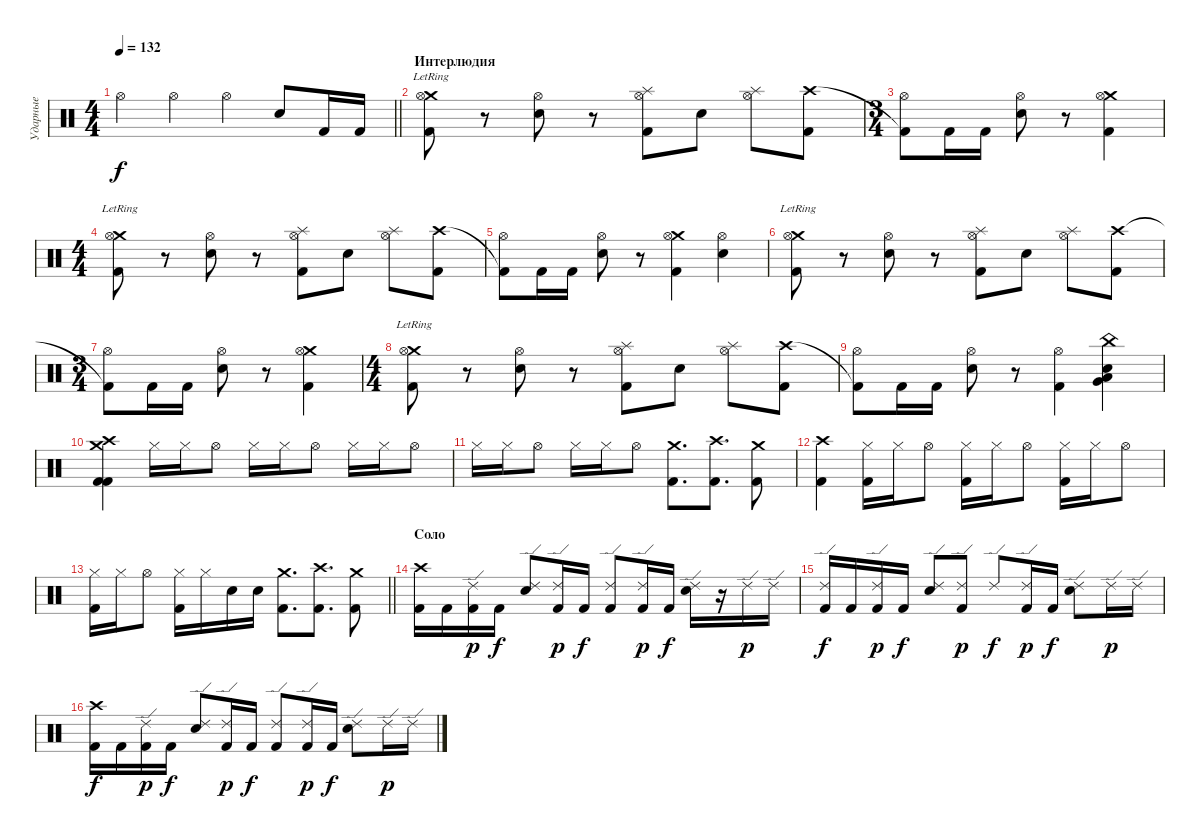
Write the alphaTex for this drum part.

\track ("Ударные" "Ударные") {instrument percussion}
\staff {score}
\articulation defaults
\ts (4 4)
\tempo 132
\clef neutral
\barLineRight lightlight
\ks c "Hi-Hat (open)".4{dy f} "Hi-Hat (open)".4 "Hi-Hat (open)".4 "Electric Snare (hit)".8 "Kick (hit) 2".16 "Kick (hit) 2".16
|
\section ("" "Интерлюдия")
("Crash medium (hit)"{lr} "Kick (hit) 2" "Hi-Hat (open)").8 r.8 ("Electric Snare (hit)" "Hi-Hat (open)").8 r.8 ("Splash (hit)" "Kick (hit) 2" "Hi-Hat (open)").8 "Electric Snare (hit)".8 ("Splash (hit)" "Hi-Hat (open)").8 ("Crash high (hit)" "Kick (hit) 2").8 |
\ts (3 4)
("Kick (hit) 2"{t} "Hi-Hat (open)").8 "Kick (hit) 2".16 "Kick (hit) 2".16 ("Electric Snare (hit)" "Hi-Hat (open)").8 r.8 ("Crash medium (hit)" "Kick (hit) 2" "Hi-Hat (open)").4 |
\ts (4 4)
("Crash medium (hit)"{lr} "Kick (hit) 2" "Hi-Hat (open)").8 r.8 ("Electric Snare (hit)" "Hi-Hat (open)").8 r.8 ("Splash (hit)" "Kick (hit) 2" "Hi-Hat (open)").8 "Electric Snare (hit)".8 ("Splash (hit)" "Hi-Hat (open)").8 ("Crash high (hit)" "Kick (hit) 2").8 |
("Kick (hit) 2"{t} "Hi-Hat (open)").8 "Kick (hit) 2".16 "Kick (hit) 2".16 ("Electric Snare (hit)" "Hi-Hat (open)").8 r.8 ("Crash medium (hit)" "Kick (hit) 2" "Hi-Hat (open)").4 ("Electric Snare (hit)" "Hi-Hat (open)").4 |
("Crash medium (hit)"{lr} "Kick (hit) 2" "Hi-Hat (open)").8 r.8 ("Electric Snare (hit)" "Hi-Hat (open)").8 r.8 ("Splash (hit)" "Kick (hit) 2" "Hi-Hat (open)").8 "Electric Snare (hit)".8 ("Splash (hit)" "Hi-Hat (open)").8 ("Crash high (hit)" "Kick (hit) 2").8 |
\ts (3 4)
("Kick (hit) 2"{t} "Hi-Hat (open)").8 "Kick (hit) 2".16 "Kick (hit) 2".16 ("Electric Snare (hit)" "Hi-Hat (open)").8 r.8 ("Crash medium (hit)" "Kick (hit) 2" "Hi-Hat (open)").4 |
\ts (4 4)
("Crash medium (hit)"{lr} "Kick (hit) 2" "Hi-Hat (open)").8 r.8 ("Electric Snare (hit)" "Hi-Hat (open)").8 r.8 ("Splash (hit)" "Kick (hit) 2" "Hi-Hat (open)").8 "Electric Snare (hit)".8 ("Splash (hit)" "Hi-Hat (open)").8 ("Crash high (hit)" "Kick (hit) 2").8 |
("Kick (hit) 2"{t} "Hi-Hat (open)").8 "Kick (hit) 2".16 "Kick (hit) 2".16 ("Electric Snare (hit)" "Hi-Hat (open)").8 r.8 ("Kick (hit) 2" "Hi-Hat (open)").4 ("China (hit)" "Electric Snare (hit)" "Very Low Tom (hit)" "Low Floor Tom (hit)").4 |
("Crash high (hit)" "Crash medium (hit)" "Kick (hit) 2" "Kick (hit) 2").4 "Hi-Hat (closed)".16 "Hi-Hat (closed)".16 "Hi-Hat (open)".8 "Hi-Hat (closed)".16 "Hi-Hat (closed)".16 "Hi-Hat (open)".8 "Hi-Hat (closed)".16 "Hi-Hat (closed)".16 "Hi-Hat (open)".8 |
"Hi-Hat (closed)".16 "Hi-Hat (closed)".16 "Hi-Hat (open)".8 "Hi-Hat (closed)".16 "Hi-Hat (closed)".16 "Hi-Hat (open)".8 ("Crash medium (hit)" "Kick (hit) 2").8{d} ("Crash high (hit)" "Kick (hit) 2").8{d} ("Crash medium (hit)" "Kick (hit) 2").8 |
("Crash high (hit)" "Kick (hit) 2").4 ("Kick (hit) 2" "Hi-Hat (closed)").16 "Hi-Hat (closed)".16 "Hi-Hat (open)".8 ("Kick (hit) 2" "Hi-Hat (closed)").16 "Hi-Hat (closed)".16 "Hi-Hat (open)".8 ("Kick (hit) 2" "Hi-Hat (closed)").16 "Hi-Hat (closed)".16 "Hi-Hat (open)".8 |
\barLineRight lightlight
("Kick (hit) 2" "Hi-Hat (closed)").16 "Hi-Hat (closed)".16 "Hi-Hat (open)".8 ("Kick (hit) 2" "Hi-Hat (closed)").16 "Hi-Hat (closed)".16 "Electric Snare (hit)".16 "Electric Snare (hit)".16 ("Crash medium (hit)" "Kick (hit) 2").8{d} ("Crash high (hit)" "Kick (hit) 2").8{d} ("Crash medium (hit)" "Kick (hit) 2").8 |
\section ("" "Соло")
("Crash high (hit)" "Kick (hit) 2").16 "Kick (hit) 2".16 ("Kick (hit) 2" "Ride (edge) 2").16{dy p} "Kick (hit) 2".16{dy f} ("Electric Snare (hit)" "Ride (edge) 2").8 ("Kick (hit) 2" "Ride (edge) 2").16{dy p} "Kick (hit) 2".16{dy f} ("Kick (hit) 2" "Ride (edge) 2").8 ("Kick (hit) 2" "Ride (edge) 2").16{dy p} "Kick (hit) 2".16{dy f} ("Electric Snare (hit)" "Ride (edge) 2").16 r.16 "Ride (edge) 2".16{dy p} "Ride (edge) 2".16 |
("Kick (hit) 2" "Ride (edge) 2").16{dy f} "Kick (hit) 2".16 ("Kick (hit) 2" "Ride (edge) 2").16{dy p} "Kick (hit) 2".16{dy f} ("Electric Snare (hit)" "Ride (edge) 2").8 ("Kick (hit) 2" "Ride (edge) 2").8{dy p} "Ride (edge) 2".8{dy f} ("Kick (hit) 2" "Ride (edge) 2").16{dy p} "Kick (hit) 2".16{dy f} ("Electric Snare (hit)" "Ride (edge) 2").8 "Ride (edge) 2".16{dy p} "Ride (edge) 2".16 |
("Crash high (hit)" "Kick (hit) 2").16{dy f} "Kick (hit) 2".16 ("Kick (hit) 2" "Ride (edge) 2").16{dy p} "Kick (hit) 2".16{dy f} ("Electric Snare (hit)" "Ride (edge) 2").8 ("Kick (hit) 2" "Ride (edge) 2").16{dy p} "Kick (hit) 2".16{dy f} ("Kick (hit) 2" "Ride (edge) 2").8 ("Kick (hit) 2" "Ride (edge) 2").16{dy p} "Kick (hit) 2".16{dy f} ("Electric Snare (hit)" "Ride (edge) 2").8 "Ride (edge) 2".16{dy p} "Ride (edge) 2".16
